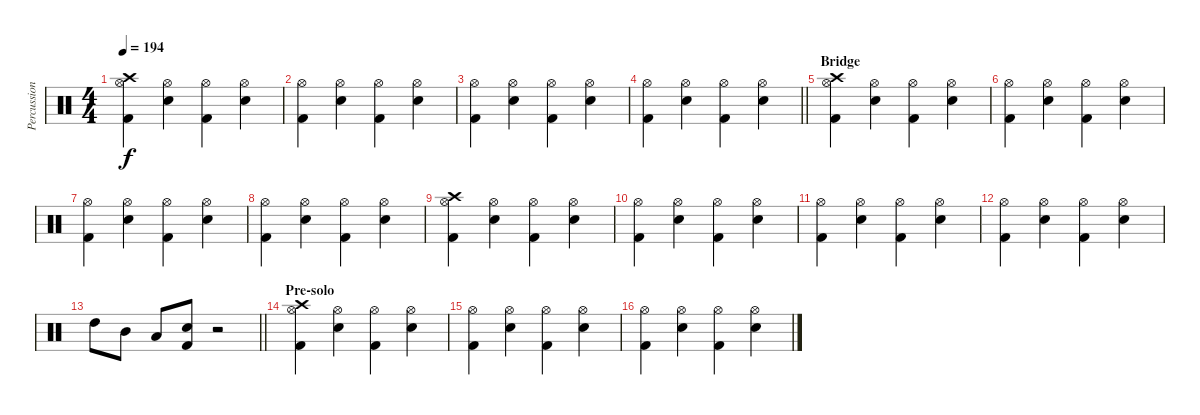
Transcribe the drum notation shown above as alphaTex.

\track ("Percussion" "Percussion") {instrument percussion}
\staff {score}
\articulation defaults
\ts (4 4)
\tempo 194
\clef neutral
\ks c
("Crash high (hit)" "Hi-Hat (open)" "Kick (hit) 2").4{dy f} ("Hi-Hat (open)" "Electric Snare (hit)").4 ("Hi-Hat (open)" "Kick (hit) 2").4 ("Hi-Hat (open)" "Electric Snare (hit)").4 |
("Hi-Hat (open)" "Kick (hit) 2").4 ("Hi-Hat (open)" "Electric Snare (hit)").4 ("Hi-Hat (open)" "Kick (hit) 2").4 ("Hi-Hat (open)" "Electric Snare (hit)").4 |
("Hi-Hat (open)" "Kick (hit) 2").4 ("Hi-Hat (open)" "Electric Snare (hit)").4 ("Hi-Hat (open)" "Kick (hit) 2").4 ("Hi-Hat (open)" "Electric Snare (hit)").4 |
\barLineRight lightlight
("Hi-Hat (open)" "Kick (hit) 2").4 ("Hi-Hat (open)" "Electric Snare (hit)").4 ("Hi-Hat (open)" "Kick (hit) 2").4 ("Hi-Hat (open)" "Electric Snare (hit)").4 |
\section ("" "Bridge")
("Crash high (hit)" "Hi-Hat (open)" "Kick (hit) 2").4 ("Hi-Hat (open)" "Electric Snare (hit)").4 ("Hi-Hat (open)" "Kick (hit) 2").4 ("Hi-Hat (open)" "Electric Snare (hit)").4 |
("Hi-Hat (open)" "Kick (hit) 2").4 ("Hi-Hat (open)" "Electric Snare (hit)").4 ("Hi-Hat (open)" "Kick (hit) 2").4 ("Hi-Hat (open)" "Electric Snare (hit)").4 |
("Hi-Hat (open)" "Kick (hit) 2").4 ("Hi-Hat (open)" "Electric Snare (hit)").4 ("Hi-Hat (open)" "Kick (hit) 2").4 ("Hi-Hat (open)" "Electric Snare (hit)").4 |
("Hi-Hat (open)" "Kick (hit) 2").4 ("Hi-Hat (open)" "Electric Snare (hit)").4 ("Hi-Hat (open)" "Kick (hit) 2").4 ("Hi-Hat (open)" "Electric Snare (hit)").4 |
("Crash high (hit)" "Hi-Hat (open)" "Kick (hit) 2").4 ("Hi-Hat (open)" "Electric Snare (hit)").4 ("Hi-Hat (open)" "Kick (hit) 2").4 ("Hi-Hat (open)" "Electric Snare (hit)").4 |
("Hi-Hat (open)" "Kick (hit) 2").4 ("Hi-Hat (open)" "Electric Snare (hit)").4 ("Hi-Hat (open)" "Kick (hit) 2").4 ("Hi-Hat (open)" "Electric Snare (hit)").4 |
("Hi-Hat (open)" "Kick (hit) 2").4 ("Hi-Hat (open)" "Electric Snare (hit)").4 ("Hi-Hat (open)" "Kick (hit) 2").4 ("Hi-Hat (open)" "Electric Snare (hit)").4 |
("Hi-Hat (open)" "Kick (hit) 2").4 ("Hi-Hat (open)" "Electric Snare (hit)").4 ("Hi-Hat (open)" "Kick (hit) 2").4 ("Hi-Hat (open)" "Electric Snare (hit)").4 |
\barLineRight lightlight "High Tom (hit)".8 "Mid Tom (hit)".8 "Low Tom (hit)".8
("Electric Snare (hit)" "Kick (hit) 2").8 r.2 |
\section ("" "Pre-solo")
("Crash high (hit)" "Hi-Hat (open)" "Kick (hit) 2").4 ("Hi-Hat (open)" "Electric Snare (hit)").4 ("Hi-Hat (open)" "Kick (hit) 2").4 ("Hi-Hat (open)" "Electric Snare (hit)").4 |
("Hi-Hat (open)" "Kick (hit) 2").4 ("Hi-Hat (open)" "Electric Snare (hit)").4 ("Hi-Hat (open)" "Kick (hit) 2").4 ("Hi-Hat (open)" "Electric Snare (hit)").4 |
("Hi-Hat (open)" "Kick (hit) 2").4 ("Hi-Hat (open)" "Electric Snare (hit)").4 ("Hi-Hat (open)" "Kick (hit) 2").4 ("Hi-Hat (open)" "Electric Snare (hit)").4
